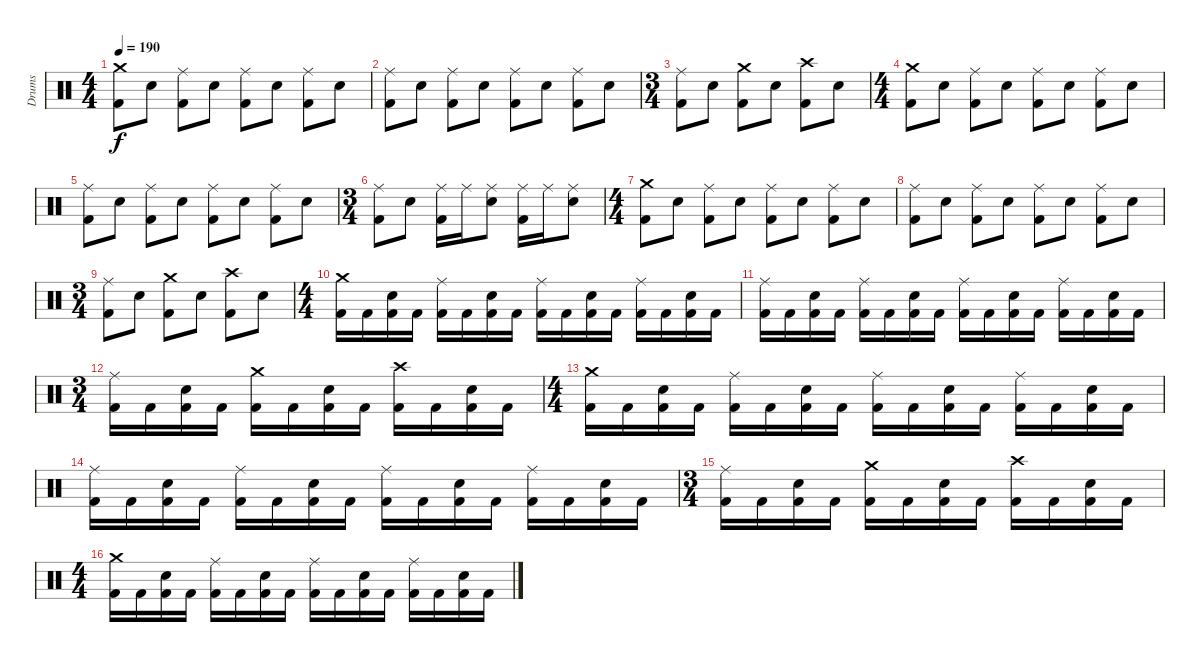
\track ("Drums" "Drums") {instrument percussion}
\staff {score}
\articulation defaults
\ts (4 4)
\tempo 190
\clef neutral
\ks c
("Kick (hit) 2" "Crash medium (hit)").8{dy f} "Electric Snare (hit)".8 ("Kick (hit) 2" "Ride (middle)").8 "Electric Snare (hit)".8 ("Kick (hit) 2" "Ride (middle)").8 "Electric Snare (hit)".8 ("Kick (hit) 2" "Ride (middle)").8 "Electric Snare (hit)".8 |
("Kick (hit) 2" "Ride (middle)").8 "Electric Snare (hit)".8 ("Kick (hit) 2" "Ride (middle)").8 "Electric Snare (hit)".8 ("Kick (hit) 2" "Ride (middle)").8 "Electric Snare (hit)".8 ("Kick (hit) 2" "Ride (middle)").8 "Electric Snare (hit)".8 |
\ts (3 4)
("Kick (hit) 2" "Ride (middle)").8 "Electric Snare (hit)".8 ("Kick (hit) 2" "Crash medium (hit)").8 "Electric Snare (hit)".8 ("Kick (hit) 2" "Crash high (hit)").8 "Electric Snare (hit)".8 |
\ts (4 4)
("Kick (hit) 2" "Crash medium (hit)").8 "Electric Snare (hit)".8 ("Kick (hit) 2" "Ride (middle)").8 "Electric Snare (hit)".8 ("Kick (hit) 2" "Ride (middle)").8 "Electric Snare (hit)".8 ("Kick (hit) 2" "Ride (middle)").8 "Electric Snare (hit)".8 |
("Kick (hit) 2" "Ride (middle)").8 "Electric Snare (hit)".8 ("Kick (hit) 2" "Ride (middle)").8 "Electric Snare (hit)".8 ("Kick (hit) 2" "Ride (middle)").8 "Electric Snare (hit)".8 ("Kick (hit) 2" "Ride (middle)").8 "Electric Snare (hit)".8 |
\ts (3 4)
("Kick (hit) 2" "Ride (middle)").8 "Electric Snare (hit)".8 ("Kick (hit) 2" "Ride (middle)").16 "Ride (middle)".16 ("Electric Snare (hit)" "Ride (middle)").8 ("Kick (hit) 2" "Ride (middle)").16 "Ride (middle)".16 ("Electric Snare (hit)" "Ride (middle)").8 |
\ts (4 4)
("Kick (hit) 2" "Crash medium (hit)").8 "Electric Snare (hit)".8 ("Kick (hit) 2" "Ride (middle)").8 "Electric Snare (hit)".8 ("Kick (hit) 2" "Ride (middle)").8 "Electric Snare (hit)".8 ("Kick (hit) 2" "Ride (middle)").8 "Electric Snare (hit)".8 |
("Kick (hit) 2" "Ride (middle)").8 "Electric Snare (hit)".8 ("Kick (hit) 2" "Ride (middle)").8 "Electric Snare (hit)".8 ("Kick (hit) 2" "Ride (middle)").8 "Electric Snare (hit)".8 ("Kick (hit) 2" "Ride (middle)").8 "Electric Snare (hit)".8 |
\ts (3 4)
("Kick (hit) 2" "Ride (middle)").8 "Electric Snare (hit)".8 ("Kick (hit) 2" "Crash medium (hit)").8 "Electric Snare (hit)".8 ("Kick (hit) 2" "Crash high (hit)").8 "Electric Snare (hit)".8 |
\ts (4 4)
("Kick (hit) 2" "Crash medium (hit)").16 "Kick (hit) 2".16 ("Kick (hit) 2" "Electric Snare (hit)").16 "Kick (hit) 2".16 ("Kick (hit) 2" "Ride (middle)").16 "Kick (hit) 2".16 ("Kick (hit) 2" "Electric Snare (hit)").16 "Kick (hit) 2".16 ("Kick (hit) 2" "Ride (middle)").16 "Kick (hit) 2".16 ("Kick (hit) 2" "Electric Snare (hit)").16 "Kick (hit) 2".16 ("Kick (hit) 2" "Ride (middle)").16 "Kick (hit) 2".16 ("Kick (hit) 2" "Electric Snare (hit)").16 "Kick (hit) 2".16 |
("Kick (hit) 2" "Ride (middle)").16 "Kick (hit) 2".16 ("Kick (hit) 2" "Electric Snare (hit)").16 "Kick (hit) 2".16 ("Kick (hit) 2" "Ride (middle)").16 "Kick (hit) 2".16 ("Kick (hit) 2" "Electric Snare (hit)").16 "Kick (hit) 2".16 ("Kick (hit) 2" "Ride (middle)").16 "Kick (hit) 2".16 ("Kick (hit) 2" "Electric Snare (hit)").16 "Kick (hit) 2".16 ("Kick (hit) 2" "Ride (middle)").16 "Kick (hit) 2".16 ("Kick (hit) 2" "Electric Snare (hit)").16 "Kick (hit) 2".16 |
\ts (3 4)
("Kick (hit) 2" "Ride (middle)").16 "Kick (hit) 2".16 ("Kick (hit) 2" "Electric Snare (hit)").16 "Kick (hit) 2".16 ("Kick (hit) 2" "Crash medium (hit)").16 "Kick (hit) 2".16 ("Kick (hit) 2" "Electric Snare (hit)").16 "Kick (hit) 2".16 ("Kick (hit) 2" "Crash high (hit)").16 "Kick (hit) 2".16 ("Kick (hit) 2" "Electric Snare (hit)").16 "Kick (hit) 2".16 |
\ts (4 4)
("Kick (hit) 2" "Crash medium (hit)").16 "Kick (hit) 2".16 ("Kick (hit) 2" "Electric Snare (hit)").16 "Kick (hit) 2".16 ("Kick (hit) 2" "Ride (middle)").16 "Kick (hit) 2".16 ("Kick (hit) 2" "Electric Snare (hit)").16 "Kick (hit) 2".16 ("Kick (hit) 2" "Ride (middle)").16 "Kick (hit) 2".16 ("Kick (hit) 2" "Electric Snare (hit)").16 "Kick (hit) 2".16 ("Kick (hit) 2" "Ride (middle)").16 "Kick (hit) 2".16 ("Kick (hit) 2" "Electric Snare (hit)").16 "Kick (hit) 2".16 |
("Kick (hit) 2" "Ride (middle)").16 "Kick (hit) 2".16 ("Kick (hit) 2" "Electric Snare (hit)").16 "Kick (hit) 2".16 ("Kick (hit) 2" "Ride (middle)").16 "Kick (hit) 2".16 ("Kick (hit) 2" "Electric Snare (hit)").16 "Kick (hit) 2".16 ("Kick (hit) 2" "Ride (middle)").16 "Kick (hit) 2".16 ("Kick (hit) 2" "Electric Snare (hit)").16 "Kick (hit) 2".16 ("Kick (hit) 2" "Ride (middle)").16 "Kick (hit) 2".16 ("Kick (hit) 2" "Electric Snare (hit)").16 "Kick (hit) 2".16 |
\ts (3 4)
("Kick (hit) 2" "Ride (middle)").16 "Kick (hit) 2".16 ("Kick (hit) 2" "Electric Snare (hit)").16 "Kick (hit) 2".16 ("Kick (hit) 2" "Crash medium (hit)").16 "Kick (hit) 2".16 ("Kick (hit) 2" "Electric Snare (hit)").16 "Kick (hit) 2".16 ("Kick (hit) 2" "Crash high (hit)").16 "Kick (hit) 2".16 ("Kick (hit) 2" "Electric Snare (hit)").16 "Kick (hit) 2".16 |
\ts (4 4)
("Kick (hit) 2" "Crash medium (hit)").16 "Kick (hit) 2".16 ("Kick (hit) 2" "Electric Snare (hit)").16 "Kick (hit) 2".16 ("Kick (hit) 2" "Ride (middle)").16 "Kick (hit) 2".16 ("Kick (hit) 2" "Electric Snare (hit)").16 "Kick (hit) 2".16 ("Kick (hit) 2" "Ride (middle)").16 "Kick (hit) 2".16 ("Kick (hit) 2" "Electric Snare (hit)").16 "Kick (hit) 2".16 ("Kick (hit) 2" "Ride (middle)").16 "Kick (hit) 2".16 ("Kick (hit) 2" "Electric Snare (hit)").16 "Kick (hit) 2".16
